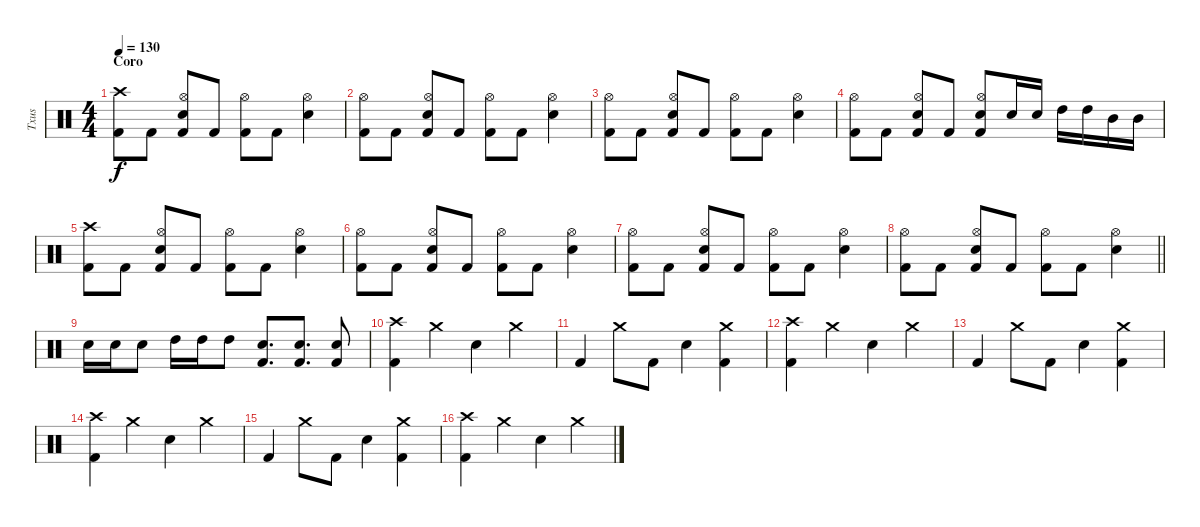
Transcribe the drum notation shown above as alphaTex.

\track ("Txus" "Txus") {instrument percussion}
\staff {score}
\articulation defaults
\ts (4 4)
\section ("" "Coro")
\tempo 130
\clef neutral
\ks c
("Crash high (hit)" "Kick (hit) 2").8{dy f} "Kick (hit) 2".8 ("Hi-Hat (open)" "Electric Snare (hit)" "Kick (hit) 2").8 "Kick (hit) 2".8 ("Hi-Hat (open)" "Kick (hit) 2").8 "Kick (hit) 2".8 ("Hi-Hat (open)" "Electric Snare (hit)").4 |
("Hi-Hat (open)" "Kick (hit) 2").8 "Kick (hit) 2".8 ("Hi-Hat (open)" "Electric Snare (hit)" "Kick (hit) 2").8 "Kick (hit) 2".8 ("Hi-Hat (open)" "Kick (hit) 2").8 "Kick (hit) 2".8 ("Hi-Hat (open)" "Electric Snare (hit)").4 |
("Hi-Hat (open)" "Kick (hit) 2").8 "Kick (hit) 2".8 ("Hi-Hat (open)" "Electric Snare (hit)" "Kick (hit) 2").8 "Kick (hit) 2".8 ("Hi-Hat (open)" "Kick (hit) 2").8 "Kick (hit) 2".8 ("Hi-Hat (open)" "Electric Snare (hit)").4 |
("Hi-Hat (open)" "Kick (hit) 2").8 "Kick (hit) 2".8 ("Hi-Hat (open)" "Electric Snare (hit)" "Kick (hit) 2").8 "Kick (hit) 2".8 ("Hi-Hat (open)" "Electric Snare (hit)" "Kick (hit) 2").8 "Electric Snare (hit)".16 "Electric Snare (hit)".16 "High Tom (hit)".16 "High Tom (hit)".16 "Mid Tom (hit)".16 "Mid Tom (hit)".16 |
("Crash high (hit)" "Kick (hit) 2").8 "Kick (hit) 2".8 ("Hi-Hat (open)" "Electric Snare (hit)" "Kick (hit) 2").8 "Kick (hit) 2".8 ("Hi-Hat (open)" "Kick (hit) 2").8 "Kick (hit) 2".8 ("Hi-Hat (open)" "Electric Snare (hit)").4 |
("Hi-Hat (open)" "Kick (hit) 2").8 "Kick (hit) 2".8 ("Hi-Hat (open)" "Electric Snare (hit)" "Kick (hit) 2").8 "Kick (hit) 2".8 ("Hi-Hat (open)" "Kick (hit) 2").8 "Kick (hit) 2".8 ("Hi-Hat (open)" "Electric Snare (hit)").4 |
("Hi-Hat (open)" "Kick (hit) 2").8 "Kick (hit) 2".8 ("Hi-Hat (open)" "Electric Snare (hit)" "Kick (hit) 2").8 "Kick (hit) 2".8 ("Hi-Hat (open)" "Kick (hit) 2").8 "Kick (hit) 2".8 ("Hi-Hat (open)" "Electric Snare (hit)").4 |
\barLineRight lightlight
("Hi-Hat (open)" "Kick (hit) 2").8 "Kick (hit) 2".8 ("Hi-Hat (open)" "Electric Snare (hit)" "Kick (hit) 2").8 "Kick (hit) 2".8 ("Hi-Hat (open)" "Kick (hit) 2").8 "Kick (hit) 2".8 ("Hi-Hat (open)" "Electric Snare (hit)").4 |
"Electric Snare (hit)".16 "Electric Snare (hit)".16 "Electric Snare (hit)".8 "High Tom (hit)".16 "High Tom (hit)".16 "High Tom (hit)".8 ("Electric Snare (hit)" "Kick (hit) 2").8{d} ("Electric Snare (hit)" "Kick (hit) 2").8{d} ("Electric Snare (hit)" "Kick (hit) 2").8 |
("Crash high (hit)" "Kick (hit) 2").4 "Crash medium (hit)".4 "Electric Snare (hit)".4 "Crash medium (hit)".4 |
"Kick (hit) 2".4 "Crash medium (hit)".8 "Kick (hit) 2".8 "Electric Snare (hit)".4 ("Crash medium (hit)" "Kick (hit) 2").4 |
("Crash high (hit)" "Kick (hit) 2").4 "Crash medium (hit)".4 "Electric Snare (hit)".4 "Crash medium (hit)".4 |
"Kick (hit) 2".4 "Crash medium (hit)".8 "Kick (hit) 2".8 "Electric Snare (hit)".4 ("Crash medium (hit)" "Kick (hit) 2").4 |
("Crash high (hit)" "Kick (hit) 2").4 "Crash medium (hit)".4 "Electric Snare (hit)".4 "Crash medium (hit)".4 |
"Kick (hit) 2".4 "Crash medium (hit)".8 "Kick (hit) 2".8 "Electric Snare (hit)".4 ("Crash medium (hit)" "Kick (hit) 2").4 |
("Crash high (hit)" "Kick (hit) 2").4 "Crash medium (hit)".4 "Electric Snare (hit)".4 "Crash medium (hit)".4
